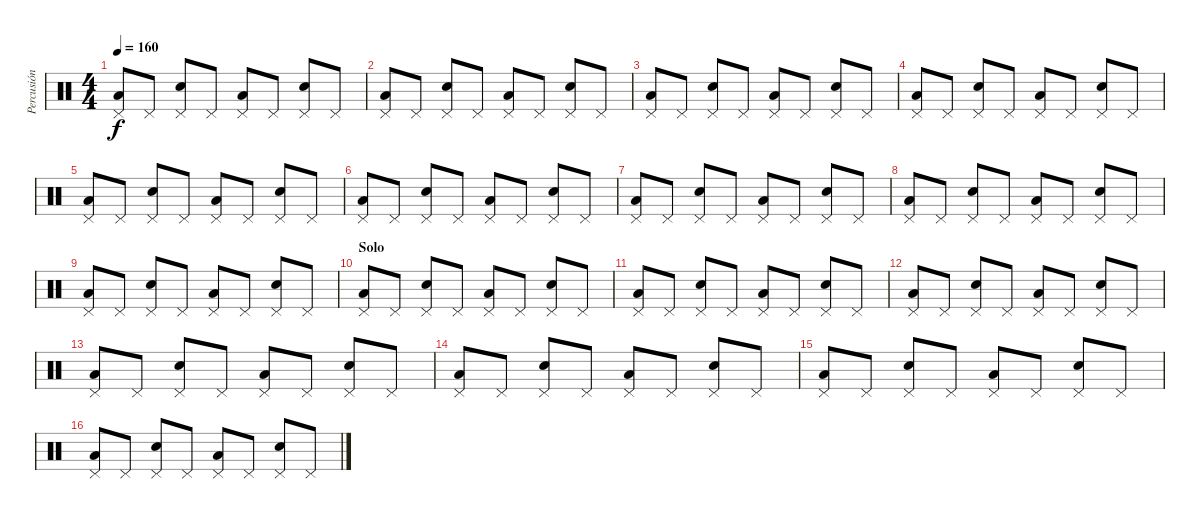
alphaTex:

\track ("Percusión" "Percusión") {instrument percussion}
\staff {score}
\articulation defaults
\ts (4 4)
\tempo 160
\clef neutral
\ks c
("Pedal Hi-Hat (hit)" "Low Floor Tom (hit)").8{dy f} "Pedal Hi-Hat (hit)".8 ("Pedal Hi-Hat (hit)" "Snare (hit) 2").8 "Pedal Hi-Hat (hit)".8 ("Pedal Hi-Hat (hit)" "Low Floor Tom (hit)").8 "Pedal Hi-Hat (hit)".8 ("Pedal Hi-Hat (hit)" "Snare (hit) 2").8 "Pedal Hi-Hat (hit)".8 |
("Pedal Hi-Hat (hit)" "Low Floor Tom (hit)").8 "Pedal Hi-Hat (hit)".8 ("Pedal Hi-Hat (hit)" "Snare (hit) 2").8 "Pedal Hi-Hat (hit)".8 ("Pedal Hi-Hat (hit)" "Low Floor Tom (hit)").8 "Pedal Hi-Hat (hit)".8 ("Pedal Hi-Hat (hit)" "Snare (hit) 2").8 "Pedal Hi-Hat (hit)".8 |
("Pedal Hi-Hat (hit)" "Low Floor Tom (hit)").8 "Pedal Hi-Hat (hit)".8 ("Pedal Hi-Hat (hit)" "Snare (hit) 2").8 "Pedal Hi-Hat (hit)".8 ("Pedal Hi-Hat (hit)" "Low Floor Tom (hit)").8 "Pedal Hi-Hat (hit)".8 ("Pedal Hi-Hat (hit)" "Snare (hit) 2").8 "Pedal Hi-Hat (hit)".8 |
("Pedal Hi-Hat (hit)" "Low Floor Tom (hit)").8 "Pedal Hi-Hat (hit)".8 ("Pedal Hi-Hat (hit)" "Snare (hit) 2").8 "Pedal Hi-Hat (hit)".8 ("Pedal Hi-Hat (hit)" "Low Floor Tom (hit)").8 "Pedal Hi-Hat (hit)".8 ("Pedal Hi-Hat (hit)" "Snare (hit) 2").8 "Pedal Hi-Hat (hit)".8 |
("Pedal Hi-Hat (hit)" "Low Floor Tom (hit)").8 "Pedal Hi-Hat (hit)".8 ("Pedal Hi-Hat (hit)" "Snare (hit) 2").8 "Pedal Hi-Hat (hit)".8 ("Pedal Hi-Hat (hit)" "Low Floor Tom (hit)").8 "Pedal Hi-Hat (hit)".8 ("Pedal Hi-Hat (hit)" "Snare (hit) 2").8 "Pedal Hi-Hat (hit)".8 |
("Pedal Hi-Hat (hit)" "Low Floor Tom (hit)").8 "Pedal Hi-Hat (hit)".8 ("Pedal Hi-Hat (hit)" "Snare (hit) 2").8 "Pedal Hi-Hat (hit)".8 ("Pedal Hi-Hat (hit)" "Low Floor Tom (hit)").8 "Pedal Hi-Hat (hit)".8 ("Pedal Hi-Hat (hit)" "Snare (hit) 2").8 "Pedal Hi-Hat (hit)".8 |
("Pedal Hi-Hat (hit)" "Low Floor Tom (hit)").8 "Pedal Hi-Hat (hit)".8 ("Pedal Hi-Hat (hit)" "Snare (hit) 2").8 "Pedal Hi-Hat (hit)".8 ("Pedal Hi-Hat (hit)" "Low Floor Tom (hit)").8 "Pedal Hi-Hat (hit)".8 ("Pedal Hi-Hat (hit)" "Snare (hit) 2").8 "Pedal Hi-Hat (hit)".8 |
("Pedal Hi-Hat (hit)" "Low Floor Tom (hit)").8 "Pedal Hi-Hat (hit)".8 ("Pedal Hi-Hat (hit)" "Snare (hit) 2").8 "Pedal Hi-Hat (hit)".8 ("Pedal Hi-Hat (hit)" "Low Floor Tom (hit)").8 "Pedal Hi-Hat (hit)".8 ("Pedal Hi-Hat (hit)" "Snare (hit) 2").8 "Pedal Hi-Hat (hit)".8 |
("Pedal Hi-Hat (hit)" "Low Floor Tom (hit)").8 "Pedal Hi-Hat (hit)".8 ("Pedal Hi-Hat (hit)" "Snare (hit) 2").8 "Pedal Hi-Hat (hit)".8 ("Pedal Hi-Hat (hit)" "Low Floor Tom (hit)").8 "Pedal Hi-Hat (hit)".8 ("Pedal Hi-Hat (hit)" "Snare (hit) 2").8 "Pedal Hi-Hat (hit)".8 |
\section ("" "Solo")
("Pedal Hi-Hat (hit)" "Low Floor Tom (hit)").8 "Pedal Hi-Hat (hit)".8 ("Pedal Hi-Hat (hit)" "Snare (hit) 2").8 "Pedal Hi-Hat (hit)".8 ("Pedal Hi-Hat (hit)" "Low Floor Tom (hit)").8 "Pedal Hi-Hat (hit)".8 ("Pedal Hi-Hat (hit)" "Snare (hit) 2").8 "Pedal Hi-Hat (hit)".8 |
("Pedal Hi-Hat (hit)" "Low Floor Tom (hit)").8 "Pedal Hi-Hat (hit)".8 ("Pedal Hi-Hat (hit)" "Snare (hit) 2").8 "Pedal Hi-Hat (hit)".8 ("Pedal Hi-Hat (hit)" "Low Floor Tom (hit)").8 "Pedal Hi-Hat (hit)".8 ("Pedal Hi-Hat (hit)" "Snare (hit) 2").8 "Pedal Hi-Hat (hit)".8 |
("Pedal Hi-Hat (hit)" "Low Floor Tom (hit)").8 "Pedal Hi-Hat (hit)".8 ("Pedal Hi-Hat (hit)" "Snare (hit) 2").8 "Pedal Hi-Hat (hit)".8 ("Pedal Hi-Hat (hit)" "Low Floor Tom (hit)").8 "Pedal Hi-Hat (hit)".8 ("Pedal Hi-Hat (hit)" "Snare (hit) 2").8 "Pedal Hi-Hat (hit)".8 |
("Pedal Hi-Hat (hit)" "Low Floor Tom (hit)").8 "Pedal Hi-Hat (hit)".8 ("Pedal Hi-Hat (hit)" "Snare (hit) 2").8 "Pedal Hi-Hat (hit)".8 ("Pedal Hi-Hat (hit)" "Low Floor Tom (hit)").8 "Pedal Hi-Hat (hit)".8 ("Pedal Hi-Hat (hit)" "Snare (hit) 2").8 "Pedal Hi-Hat (hit)".8 |
("Pedal Hi-Hat (hit)" "Low Floor Tom (hit)").8 "Pedal Hi-Hat (hit)".8 ("Pedal Hi-Hat (hit)" "Snare (hit) 2").8 "Pedal Hi-Hat (hit)".8 ("Pedal Hi-Hat (hit)" "Low Floor Tom (hit)").8 "Pedal Hi-Hat (hit)".8 ("Pedal Hi-Hat (hit)" "Snare (hit) 2").8 "Pedal Hi-Hat (hit)".8 |
("Pedal Hi-Hat (hit)" "Low Floor Tom (hit)").8 "Pedal Hi-Hat (hit)".8 ("Pedal Hi-Hat (hit)" "Snare (hit) 2").8 "Pedal Hi-Hat (hit)".8 ("Pedal Hi-Hat (hit)" "Low Floor Tom (hit)").8 "Pedal Hi-Hat (hit)".8 ("Pedal Hi-Hat (hit)" "Snare (hit) 2").8 "Pedal Hi-Hat (hit)".8 |
("Pedal Hi-Hat (hit)" "Low Floor Tom (hit)").8 "Pedal Hi-Hat (hit)".8 ("Pedal Hi-Hat (hit)" "Snare (hit) 2").8 "Pedal Hi-Hat (hit)".8 ("Pedal Hi-Hat (hit)" "Low Floor Tom (hit)").8 "Pedal Hi-Hat (hit)".8 ("Pedal Hi-Hat (hit)" "Snare (hit) 2").8 "Pedal Hi-Hat (hit)".8
